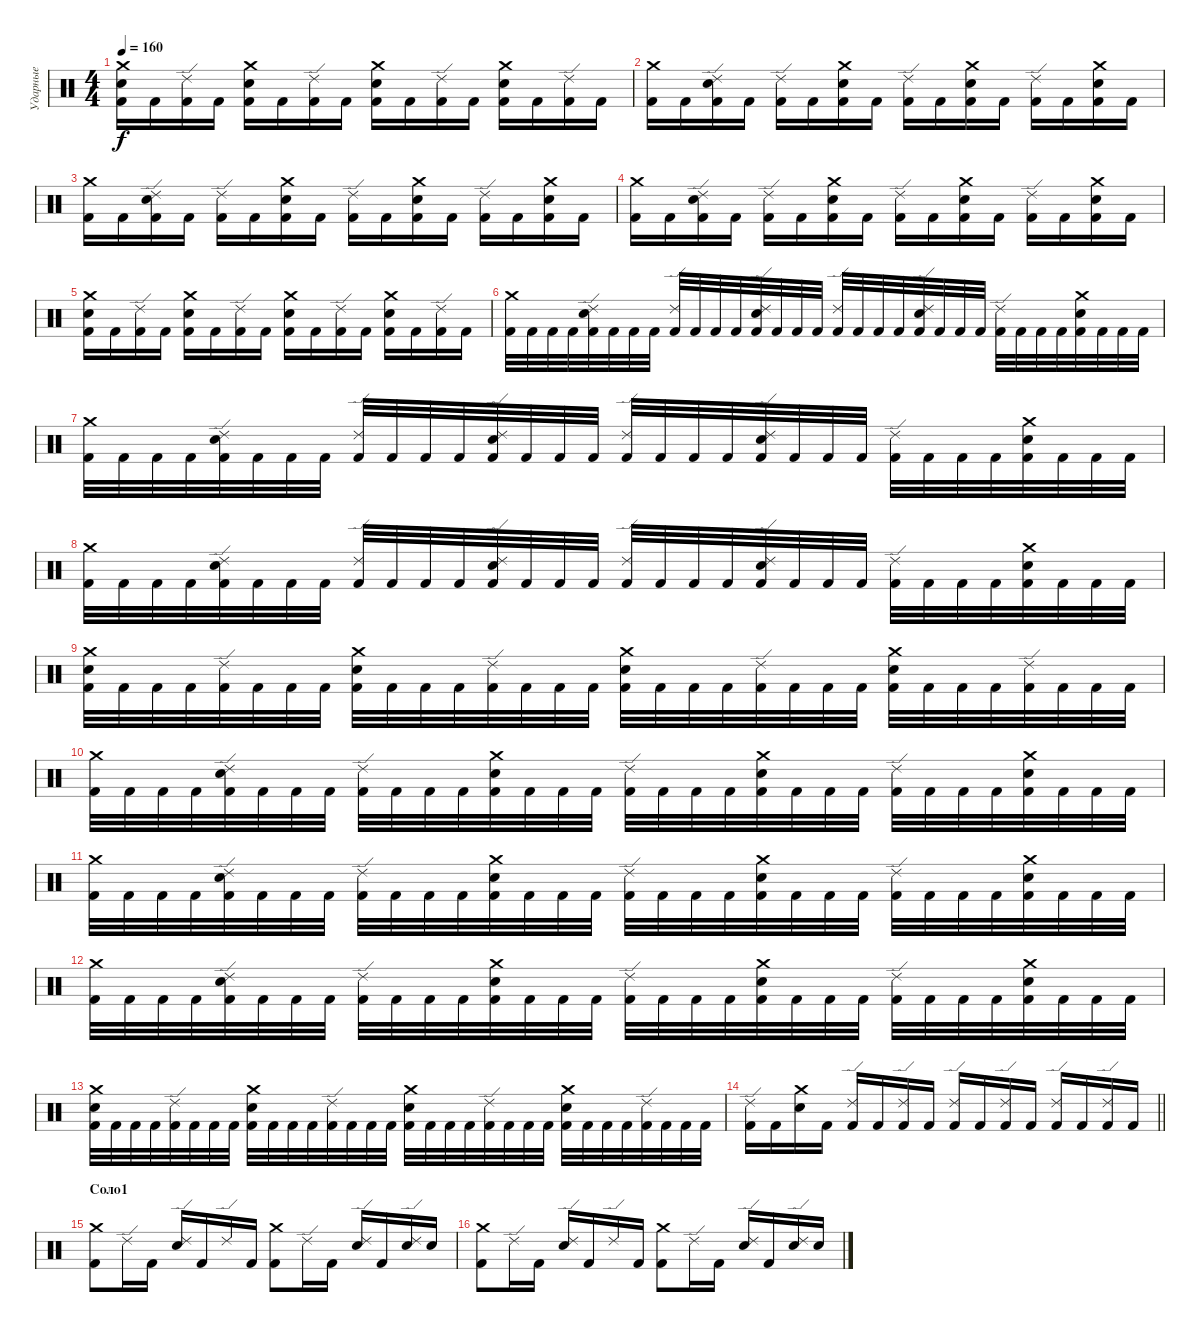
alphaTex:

\track ("Ударные" "Ударные") {instrument percussion}
\staff {score}
\articulation defaults
\ts (4 4)
\tempo 160
\clef neutral
\ks c
("Crash medium (hit)" "Kick (hit) 2" "Electric Snare (hit)").16{dy f} "Kick (hit) 2".16 ("Ride (edge) 2" "Kick (hit) 2").16 "Kick (hit) 2".16 ("Crash medium (hit)" "Kick (hit) 2" "Electric Snare (hit)").16 "Kick (hit) 2".16 ("Ride (edge) 2" "Kick (hit) 2").16 "Kick (hit) 2".16 ("Crash medium (hit)" "Kick (hit) 2" "Electric Snare (hit)").16 "Kick (hit) 2".16 ("Ride (edge) 2" "Kick (hit) 2").16 "Kick (hit) 2".16 ("Crash medium (hit)" "Kick (hit) 2" "Electric Snare (hit)").16 "Kick (hit) 2".16 ("Ride (edge) 2" "Kick (hit) 2").16 "Kick (hit) 2".16 |
("Crash medium (hit)" "Kick (hit) 2").16 "Kick (hit) 2".16 ("Ride (edge) 2" "Kick (hit) 2" "Electric Snare (hit)").16 "Kick (hit) 2".16 ("Ride (edge) 2" "Kick (hit) 2").16 "Kick (hit) 2".16 ("Crash medium (hit)" "Kick (hit) 2" "Electric Snare (hit)").16 "Kick (hit) 2".16 ("Ride (edge) 2" "Kick (hit) 2").16 "Kick (hit) 2".16 ("Crash medium (hit)" "Kick (hit) 2" "Electric Snare (hit)").16 "Kick (hit) 2".16 ("Ride (edge) 2" "Kick (hit) 2").16 "Kick (hit) 2".16 ("Crash medium (hit)" "Kick (hit) 2" "Electric Snare (hit)").16 "Kick (hit) 2".16 |
("Crash medium (hit)" "Kick (hit) 2").16 "Kick (hit) 2".16 ("Ride (edge) 2" "Kick (hit) 2" "Electric Snare (hit)").16 "Kick (hit) 2".16 ("Ride (edge) 2" "Kick (hit) 2").16 "Kick (hit) 2".16 ("Crash medium (hit)" "Kick (hit) 2" "Electric Snare (hit)").16 "Kick (hit) 2".16 ("Ride (edge) 2" "Kick (hit) 2").16 "Kick (hit) 2".16 ("Crash medium (hit)" "Kick (hit) 2" "Electric Snare (hit)").16 "Kick (hit) 2".16 ("Ride (edge) 2" "Kick (hit) 2").16 "Kick (hit) 2".16 ("Crash medium (hit)" "Kick (hit) 2" "Electric Snare (hit)").16 "Kick (hit) 2".16 |
("Crash medium (hit)" "Kick (hit) 2").16 "Kick (hit) 2".16 ("Ride (edge) 2" "Kick (hit) 2" "Electric Snare (hit)").16 "Kick (hit) 2".16 ("Ride (edge) 2" "Kick (hit) 2").16 "Kick (hit) 2".16 ("Crash medium (hit)" "Kick (hit) 2" "Electric Snare (hit)").16 "Kick (hit) 2".16 ("Ride (edge) 2" "Kick (hit) 2").16 "Kick (hit) 2".16 ("Crash medium (hit)" "Kick (hit) 2" "Electric Snare (hit)").16 "Kick (hit) 2".16 ("Ride (edge) 2" "Kick (hit) 2").16 "Kick (hit) 2".16 ("Crash medium (hit)" "Kick (hit) 2" "Electric Snare (hit)").16 "Kick (hit) 2".16 |
("Crash medium (hit)" "Kick (hit) 2" "Electric Snare (hit)").16 "Kick (hit) 2".16 ("Ride (edge) 2" "Kick (hit) 2").16 "Kick (hit) 2".16 ("Crash medium (hit)" "Kick (hit) 2" "Electric Snare (hit)").16 "Kick (hit) 2".16 ("Ride (edge) 2" "Kick (hit) 2").16 "Kick (hit) 2".16 ("Crash medium (hit)" "Kick (hit) 2" "Electric Snare (hit)").16 "Kick (hit) 2".16 ("Ride (edge) 2" "Kick (hit) 2").16 "Kick (hit) 2".16 ("Crash medium (hit)" "Kick (hit) 2" "Electric Snare (hit)").16 "Kick (hit) 2".16 ("Ride (edge) 2" "Kick (hit) 2").16 "Kick (hit) 2".16 |
("Crash medium (hit)" "Kick (hit) 2").32 "Kick (hit) 2".32 "Kick (hit) 2".32 "Kick (hit) 2".32 ("Ride (edge) 2" "Kick (hit) 2" "Electric Snare (hit)").32 "Kick (hit) 2".32 "Kick (hit) 2".32 "Kick (hit) 2".32 ("Ride (edge) 2" "Kick (hit) 2").32 "Kick (hit) 2".32 "Kick (hit) 2".32 "Kick (hit) 2".32 ("Ride (edge) 2" "Kick (hit) 2" "Electric Snare (hit)").32 "Kick (hit) 2".32 "Kick (hit) 2".32 "Kick (hit) 2".32 ("Ride (edge) 2" "Kick (hit) 2").32 "Kick (hit) 2".32 "Kick (hit) 2".32 "Kick (hit) 2".32 ("Ride (edge) 2" "Kick (hit) 2" "Electric Snare (hit)").32 "Kick (hit) 2".32 "Kick (hit) 2".32 "Kick (hit) 2".32 ("Ride (edge) 2" "Kick (hit) 2").32 "Kick (hit) 2".32 "Kick (hit) 2".32 "Kick (hit) 2".32 ("Crash medium (hit)" "Kick (hit) 2" "Electric Snare (hit)").32 "Kick (hit) 2".32 "Kick (hit) 2".32 "Kick (hit) 2".32 |
("Crash medium (hit)" "Kick (hit) 2").32 "Kick (hit) 2".32 "Kick (hit) 2".32 "Kick (hit) 2".32 ("Ride (edge) 2" "Kick (hit) 2" "Electric Snare (hit)").32 "Kick (hit) 2".32 "Kick (hit) 2".32 "Kick (hit) 2".32 ("Ride (edge) 2" "Kick (hit) 2").32 "Kick (hit) 2".32 "Kick (hit) 2".32 "Kick (hit) 2".32 ("Ride (edge) 2" "Kick (hit) 2" "Electric Snare (hit)").32 "Kick (hit) 2".32 "Kick (hit) 2".32 "Kick (hit) 2".32 ("Ride (edge) 2" "Kick (hit) 2").32 "Kick (hit) 2".32 "Kick (hit) 2".32 "Kick (hit) 2".32 ("Ride (edge) 2" "Kick (hit) 2" "Electric Snare (hit)").32 "Kick (hit) 2".32 "Kick (hit) 2".32 "Kick (hit) 2".32 ("Ride (edge) 2" "Kick (hit) 2").32 "Kick (hit) 2".32 "Kick (hit) 2".32 "Kick (hit) 2".32 ("Crash medium (hit)" "Kick (hit) 2" "Electric Snare (hit)").32 "Kick (hit) 2".32 "Kick (hit) 2".32 "Kick (hit) 2".32 |
("Crash medium (hit)" "Kick (hit) 2").32 "Kick (hit) 2".32 "Kick (hit) 2".32 "Kick (hit) 2".32 ("Ride (edge) 2" "Kick (hit) 2" "Electric Snare (hit)").32 "Kick (hit) 2".32 "Kick (hit) 2".32 "Kick (hit) 2".32 ("Ride (edge) 2" "Kick (hit) 2").32 "Kick (hit) 2".32 "Kick (hit) 2".32 "Kick (hit) 2".32 ("Ride (edge) 2" "Kick (hit) 2" "Electric Snare (hit)").32 "Kick (hit) 2".32 "Kick (hit) 2".32 "Kick (hit) 2".32 ("Ride (edge) 2" "Kick (hit) 2").32 "Kick (hit) 2".32 "Kick (hit) 2".32 "Kick (hit) 2".32 ("Ride (edge) 2" "Kick (hit) 2" "Electric Snare (hit)").32 "Kick (hit) 2".32 "Kick (hit) 2".32 "Kick (hit) 2".32 ("Ride (edge) 2" "Kick (hit) 2").32 "Kick (hit) 2".32 "Kick (hit) 2".32 "Kick (hit) 2".32 ("Crash medium (hit)" "Kick (hit) 2" "Electric Snare (hit)").32 "Kick (hit) 2".32 "Kick (hit) 2".32 "Kick (hit) 2".32 |
("Crash medium (hit)" "Kick (hit) 2" "Electric Snare (hit)").32 "Kick (hit) 2".32 "Kick (hit) 2".32 "Kick (hit) 2".32 ("Ride (edge) 2" "Kick (hit) 2").32 "Kick (hit) 2".32 "Kick (hit) 2".32 "Kick (hit) 2".32 ("Crash medium (hit)" "Kick (hit) 2" "Electric Snare (hit)").32 "Kick (hit) 2".32 "Kick (hit) 2".32 "Kick (hit) 2".32 ("Ride (edge) 2" "Kick (hit) 2").32 "Kick (hit) 2".32 "Kick (hit) 2".32 "Kick (hit) 2".32 ("Crash medium (hit)" "Kick (hit) 2" "Electric Snare (hit)").32 "Kick (hit) 2".32 "Kick (hit) 2".32 "Kick (hit) 2".32 ("Ride (edge) 2" "Kick (hit) 2").32 "Kick (hit) 2".32 "Kick (hit) 2".32 "Kick (hit) 2".32 ("Crash medium (hit)" "Kick (hit) 2" "Electric Snare (hit)").32 "Kick (hit) 2".32 "Kick (hit) 2".32 "Kick (hit) 2".32 ("Ride (edge) 2" "Kick (hit) 2").32 "Kick (hit) 2".32 "Kick (hit) 2".32 "Kick (hit) 2".32 |
("Crash medium (hit)" "Kick (hit) 2").32 "Kick (hit) 2".32 "Kick (hit) 2".32 "Kick (hit) 2".32 ("Ride (edge) 2" "Kick (hit) 2" "Electric Snare (hit)").32 "Kick (hit) 2".32 "Kick (hit) 2".32 "Kick (hit) 2".32 ("Ride (edge) 2" "Kick (hit) 2").32 "Kick (hit) 2".32 "Kick (hit) 2".32 "Kick (hit) 2".32 ("Crash medium (hit)" "Kick (hit) 2" "Electric Snare (hit)").32 "Kick (hit) 2".32 "Kick (hit) 2".32 "Kick (hit) 2".32 ("Ride (edge) 2" "Kick (hit) 2").32 "Kick (hit) 2".32 "Kick (hit) 2".32 "Kick (hit) 2".32 ("Crash medium (hit)" "Kick (hit) 2" "Electric Snare (hit)").32 "Kick (hit) 2".32 "Kick (hit) 2".32 "Kick (hit) 2".32 ("Ride (edge) 2" "Kick (hit) 2").32 "Kick (hit) 2".32 "Kick (hit) 2".32 "Kick (hit) 2".32 ("Crash medium (hit)" "Kick (hit) 2" "Electric Snare (hit)").32 "Kick (hit) 2".32 "Kick (hit) 2".32 "Kick (hit) 2".32 |
("Crash medium (hit)" "Kick (hit) 2").32 "Kick (hit) 2".32 "Kick (hit) 2".32 "Kick (hit) 2".32 ("Ride (edge) 2" "Kick (hit) 2" "Electric Snare (hit)").32 "Kick (hit) 2".32 "Kick (hit) 2".32 "Kick (hit) 2".32 ("Ride (edge) 2" "Kick (hit) 2").32 "Kick (hit) 2".32 "Kick (hit) 2".32 "Kick (hit) 2".32 ("Crash medium (hit)" "Kick (hit) 2" "Electric Snare (hit)").32 "Kick (hit) 2".32 "Kick (hit) 2".32 "Kick (hit) 2".32 ("Ride (edge) 2" "Kick (hit) 2").32 "Kick (hit) 2".32 "Kick (hit) 2".32 "Kick (hit) 2".32 ("Crash medium (hit)" "Kick (hit) 2" "Electric Snare (hit)").32 "Kick (hit) 2".32 "Kick (hit) 2".32 "Kick (hit) 2".32 ("Ride (edge) 2" "Kick (hit) 2").32 "Kick (hit) 2".32 "Kick (hit) 2".32 "Kick (hit) 2".32 ("Crash medium (hit)" "Kick (hit) 2" "Electric Snare (hit)").32 "Kick (hit) 2".32 "Kick (hit) 2".32 "Kick (hit) 2".32 |
("Crash medium (hit)" "Kick (hit) 2").32 "Kick (hit) 2".32 "Kick (hit) 2".32 "Kick (hit) 2".32 ("Ride (edge) 2" "Kick (hit) 2" "Electric Snare (hit)").32 "Kick (hit) 2".32 "Kick (hit) 2".32 "Kick (hit) 2".32 ("Ride (edge) 2" "Kick (hit) 2").32 "Kick (hit) 2".32 "Kick (hit) 2".32 "Kick (hit) 2".32 ("Crash medium (hit)" "Kick (hit) 2" "Electric Snare (hit)").32 "Kick (hit) 2".32 "Kick (hit) 2".32 "Kick (hit) 2".32 ("Ride (edge) 2" "Kick (hit) 2").32 "Kick (hit) 2".32 "Kick (hit) 2".32 "Kick (hit) 2".32 ("Crash medium (hit)" "Kick (hit) 2" "Electric Snare (hit)").32 "Kick (hit) 2".32 "Kick (hit) 2".32 "Kick (hit) 2".32 ("Ride (edge) 2" "Kick (hit) 2").32 "Kick (hit) 2".32 "Kick (hit) 2".32 "Kick (hit) 2".32 ("Crash medium (hit)" "Kick (hit) 2" "Electric Snare (hit)").32 "Kick (hit) 2".32 "Kick (hit) 2".32 "Kick (hit) 2".32 |
("Crash medium (hit)" "Kick (hit) 2" "Electric Snare (hit)").32 "Kick (hit) 2".32 "Kick (hit) 2".32 "Kick (hit) 2".32 ("Ride (edge) 2" "Kick (hit) 2").32 "Kick (hit) 2".32 "Kick (hit) 2".32 "Kick (hit) 2".32 ("Crash medium (hit)" "Kick (hit) 2" "Electric Snare (hit)").32 "Kick (hit) 2".32 "Kick (hit) 2".32 "Kick (hit) 2".32 ("Ride (edge) 2" "Kick (hit) 2").32 "Kick (hit) 2".32 "Kick (hit) 2".32 "Kick (hit) 2".32 ("Crash medium (hit)" "Kick (hit) 2" "Electric Snare (hit)").32 "Kick (hit) 2".32 "Kick (hit) 2".32 "Kick (hit) 2".32 ("Ride (edge) 2" "Kick (hit) 2").32 "Kick (hit) 2".32 "Kick (hit) 2".32 "Kick (hit) 2".32 ("Crash medium (hit)" "Kick (hit) 2" "Electric Snare (hit)").32 "Kick (hit) 2".32 "Kick (hit) 2".32 "Kick (hit) 2".32 ("Ride (edge) 2" "Kick (hit) 2").32 "Kick (hit) 2".32 "Kick (hit) 2".32 "Kick (hit) 2".32 |
\barLineRight lightlight
("Ride (edge) 2" "Kick (hit) 2").16 "Kick (hit) 2".16 ("Crash medium (hit)" "Electric Snare (hit)").16 "Kick (hit) 2".16 ("Ride (edge) 2" "Kick (hit) 2").16 "Kick (hit) 2".16 ("Ride (edge) 2" "Kick (hit) 2").16 "Kick (hit) 2".16 ("Ride (edge) 2" "Kick (hit) 2").16 "Kick (hit) 2".16 ("Ride (edge) 2" "Kick (hit) 2").16 "Kick (hit) 2".16 ("Ride (edge) 2" "Kick (hit) 2").16 "Kick (hit) 2".16 ("Ride (edge) 2" "Kick (hit) 2").16 "Kick (hit) 2".16 |
\section ("" "Соло1")
("Crash medium (hit)" "Kick (hit) 2").8 "Ride (edge) 2".16 "Kick (hit) 2".16 ("Ride (edge) 2" "Electric Snare (hit)").16 "Kick (hit) 2".16 "Ride (edge) 2".16 "Kick (hit) 2".16 ("Crash medium (hit)" "Kick (hit) 2").8 "Ride (edge) 2".16 "Kick (hit) 2".16 ("Ride (edge) 2" "Electric Snare (hit)").16 "Kick (hit) 2".16 ("Ride (edge) 2" "Electric Snare (hit)").16 "Electric Snare (hit)".16 |
("Crash medium (hit)" "Kick (hit) 2").8 "Ride (edge) 2".16 "Kick (hit) 2".16 ("Ride (edge) 2" "Electric Snare (hit)").16 "Kick (hit) 2".16 "Ride (edge) 2".16 "Kick (hit) 2".16 ("Crash medium (hit)" "Kick (hit) 2").8 "Ride (edge) 2".16 "Kick (hit) 2".16 ("Ride (edge) 2" "Electric Snare (hit)").16 "Kick (hit) 2".16 ("Ride (edge) 2" "Electric Snare (hit)").16 "Electric Snare (hit)".16
